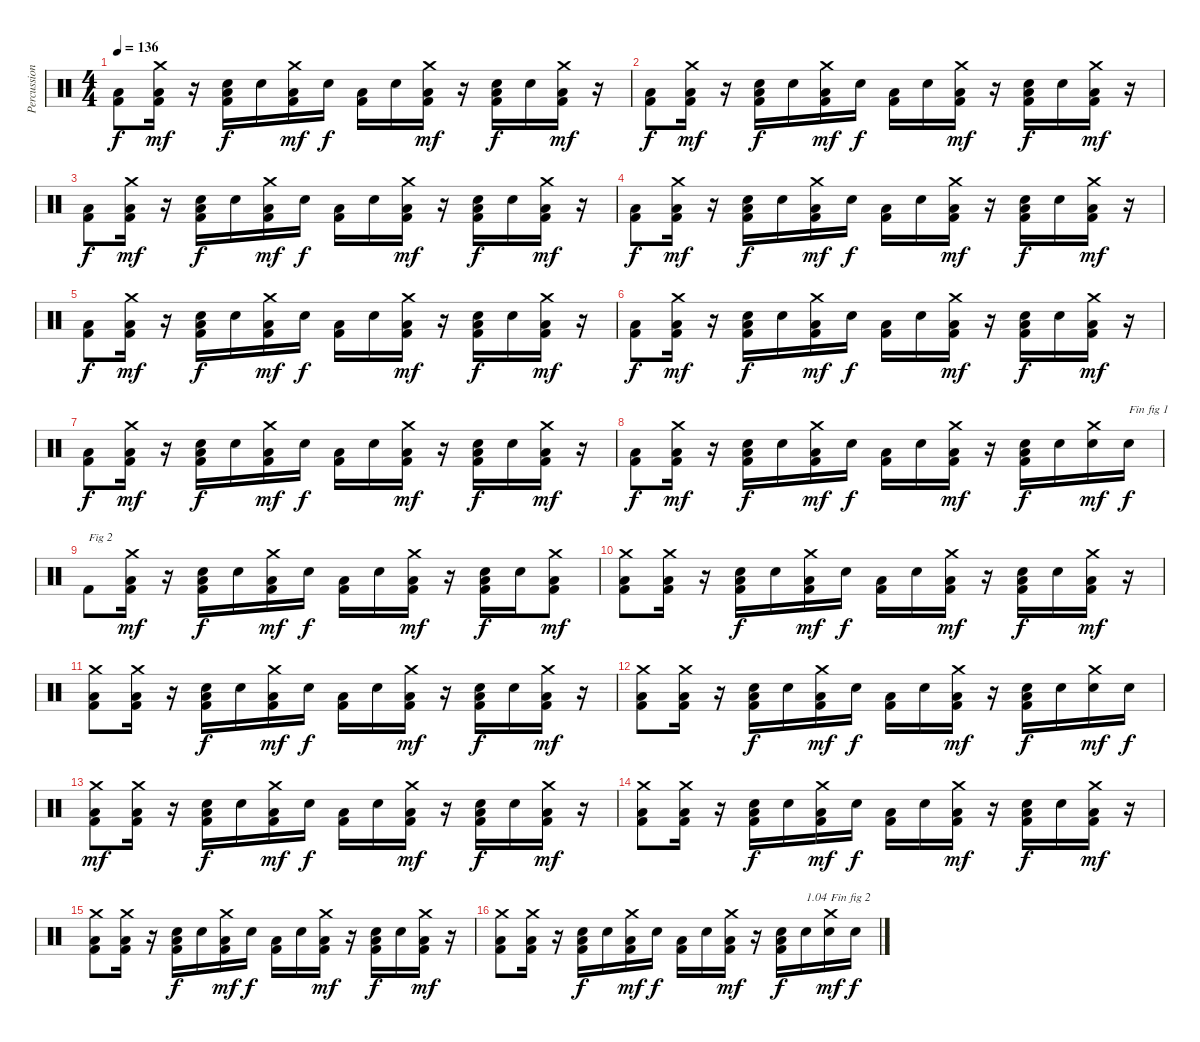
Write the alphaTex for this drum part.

\track ("Percussions" "Percussion") {instrument percussion}
\staff {score}
\articulation defaults
\ts (4 4)
\tempo 136
\clef neutral
\ks c
("Low Floor Tom (hit)" "Kick (hit) 2").8{dy f} ("Low Floor Tom (hit)" "Kick (hit) 2" "Crash medium (hit)").16{dy mf} r.16 ("Low Floor Tom (hit)" "Kick (hit) 2" "Electric Snare (hit)").16{dy f} "Electric Snare (hit)".16 ("Low Floor Tom (hit)" "Kick (hit) 2" "Crash medium (hit)").16{dy mf} "Electric Snare (hit)".16{dy f} ("Low Floor Tom (hit)" "Kick (hit) 2").16 "Electric Snare (hit)".16 ("Low Floor Tom (hit)" "Kick (hit) 2" "Crash medium (hit)").16{dy mf} r.16 ("Low Floor Tom (hit)" "Kick (hit) 2" "Electric Snare (hit)").16{dy f} "Electric Snare (hit)".16 ("Low Floor Tom (hit)" "Kick (hit) 2" "Crash medium (hit)").16{dy mf} r.16 |
("Low Floor Tom (hit)" "Kick (hit) 2").8{dy f} ("Low Floor Tom (hit)" "Kick (hit) 2" "Crash medium (hit)").16{dy mf} r.16 ("Low Floor Tom (hit)" "Kick (hit) 2" "Electric Snare (hit)").16{dy f} "Electric Snare (hit)".16 ("Low Floor Tom (hit)" "Kick (hit) 2" "Crash medium (hit)").16{dy mf} "Electric Snare (hit)".16{dy f} ("Low Floor Tom (hit)" "Kick (hit) 2").16 "Electric Snare (hit)".16 ("Low Floor Tom (hit)" "Kick (hit) 2" "Crash medium (hit)").16{dy mf} r.16 ("Low Floor Tom (hit)" "Kick (hit) 2" "Electric Snare (hit)").16{dy f} "Electric Snare (hit)".16 ("Low Floor Tom (hit)" "Kick (hit) 2" "Crash medium (hit)").16{dy mf} r.16 |
("Low Floor Tom (hit)" "Kick (hit) 2").8{dy f} ("Low Floor Tom (hit)" "Kick (hit) 2" "Crash medium (hit)").16{dy mf} r.16 ("Low Floor Tom (hit)" "Kick (hit) 2" "Electric Snare (hit)").16{dy f} "Electric Snare (hit)".16 ("Low Floor Tom (hit)" "Kick (hit) 2" "Crash medium (hit)").16{dy mf} "Electric Snare (hit)".16{dy f} ("Low Floor Tom (hit)" "Kick (hit) 2").16 "Electric Snare (hit)".16 ("Low Floor Tom (hit)" "Kick (hit) 2" "Crash medium (hit)").16{dy mf} r.16 ("Low Floor Tom (hit)" "Kick (hit) 2" "Electric Snare (hit)").16{dy f} "Electric Snare (hit)".16 ("Low Floor Tom (hit)" "Kick (hit) 2" "Crash medium (hit)").16{dy mf} r.16 |
("Low Floor Tom (hit)" "Kick (hit) 2").8{dy f} ("Low Floor Tom (hit)" "Kick (hit) 2" "Crash medium (hit)").16{dy mf} r.16 ("Low Floor Tom (hit)" "Kick (hit) 2" "Electric Snare (hit)").16{dy f} "Electric Snare (hit)".16 ("Low Floor Tom (hit)" "Kick (hit) 2" "Crash medium (hit)").16{dy mf} "Electric Snare (hit)".16{dy f} ("Low Floor Tom (hit)" "Kick (hit) 2").16 "Electric Snare (hit)".16 ("Low Floor Tom (hit)" "Kick (hit) 2" "Crash medium (hit)").16{dy mf} r.16 ("Low Floor Tom (hit)" "Kick (hit) 2" "Electric Snare (hit)").16{dy f} "Electric Snare (hit)".16 ("Low Floor Tom (hit)" "Kick (hit) 2" "Crash medium (hit)").16{dy mf} r.16 |
("Low Floor Tom (hit)" "Kick (hit) 2").8{dy f} ("Low Floor Tom (hit)" "Kick (hit) 2" "Crash medium (hit)").16{dy mf} r.16 ("Low Floor Tom (hit)" "Kick (hit) 2" "Electric Snare (hit)").16{dy f} "Electric Snare (hit)".16 ("Low Floor Tom (hit)" "Kick (hit) 2" "Crash medium (hit)").16{dy mf} "Electric Snare (hit)".16{dy f} ("Low Floor Tom (hit)" "Kick (hit) 2").16 "Electric Snare (hit)".16 ("Low Floor Tom (hit)" "Kick (hit) 2" "Crash medium (hit)").16{dy mf} r.16 ("Low Floor Tom (hit)" "Kick (hit) 2" "Electric Snare (hit)").16{dy f} "Electric Snare (hit)".16 ("Low Floor Tom (hit)" "Kick (hit) 2" "Crash medium (hit)").16{dy mf} r.16 |
("Low Floor Tom (hit)" "Kick (hit) 2").8{dy f} ("Low Floor Tom (hit)" "Kick (hit) 2" "Crash medium (hit)").16{dy mf} r.16 ("Low Floor Tom (hit)" "Kick (hit) 2" "Electric Snare (hit)").16{dy f} "Electric Snare (hit)".16 ("Low Floor Tom (hit)" "Kick (hit) 2" "Crash medium (hit)").16{dy mf} "Electric Snare (hit)".16{dy f} ("Low Floor Tom (hit)" "Kick (hit) 2").16 "Electric Snare (hit)".16 ("Low Floor Tom (hit)" "Kick (hit) 2" "Crash medium (hit)").16{dy mf} r.16 ("Low Floor Tom (hit)" "Kick (hit) 2" "Electric Snare (hit)").16{dy f} "Electric Snare (hit)".16 ("Low Floor Tom (hit)" "Kick (hit) 2" "Crash medium (hit)").16{dy mf} r.16 |
("Low Floor Tom (hit)" "Kick (hit) 2").8{dy f} ("Low Floor Tom (hit)" "Kick (hit) 2" "Crash medium (hit)").16{dy mf} r.16 ("Low Floor Tom (hit)" "Kick (hit) 2" "Electric Snare (hit)").16{dy f} "Electric Snare (hit)".16 ("Low Floor Tom (hit)" "Kick (hit) 2" "Crash medium (hit)").16{dy mf} "Electric Snare (hit)".16{dy f} ("Low Floor Tom (hit)" "Kick (hit) 2").16 "Electric Snare (hit)".16 ("Low Floor Tom (hit)" "Kick (hit) 2" "Crash medium (hit)").16{dy mf} r.16 ("Low Floor Tom (hit)" "Kick (hit) 2" "Electric Snare (hit)").16{dy f} "Electric Snare (hit)".16 ("Low Floor Tom (hit)" "Kick (hit) 2" "Crash medium (hit)").16{dy mf} r.16 |
("Low Floor Tom (hit)" "Kick (hit) 2").8{dy f} ("Low Floor Tom (hit)" "Kick (hit) 2" "Crash medium (hit)").16{dy mf} r.16 ("Low Floor Tom (hit)" "Kick (hit) 2" "Electric Snare (hit)").16{dy f} "Electric Snare (hit)".16 ("Low Floor Tom (hit)" "Kick (hit) 2" "Crash medium (hit)").16{dy mf} "Electric Snare (hit)".16{dy f} ("Low Floor Tom (hit)" "Kick (hit) 2").16 "Electric Snare (hit)".16 ("Low Floor Tom (hit)" "Kick (hit) 2" "Crash medium (hit)").16{dy mf} r.16 ("Low Floor Tom (hit)" "Kick (hit) 2" "Electric Snare (hit)").16{dy f} "Electric Snare (hit)".16 ("Electric Snare (hit)" "Crash medium (hit)").16{dy mf} "Electric Snare (hit)".16{txt "Fin fig 1" dy f} |
"Kick (hit) 2".8{txt "Fig 2"} ("Low Floor Tom (hit)" "Kick (hit) 2" "Crash medium (hit)").16{dy mf} r.16 ("Low Floor Tom (hit)" "Kick (hit) 2" "Electric Snare (hit)").16{dy f} "Electric Snare (hit)".16 ("Low Floor Tom (hit)" "Kick (hit) 2" "Crash medium (hit)").16{dy mf} "Electric Snare (hit)".16{dy f} ("Low Floor Tom (hit)" "Kick (hit) 2").16 "Electric Snare (hit)".16 ("Low Floor Tom (hit)" "Kick (hit) 2" "Crash medium (hit)").16{dy mf} r.16 ("Low Floor Tom (hit)" "Kick (hit) 2" "Electric Snare (hit)").16{dy f} "Electric Snare (hit)".16 ("Low Floor Tom (hit)" "Kick (hit) 2" "Crash medium (hit)").8{dy mf} |
("Low Floor Tom (hit)" "Kick (hit) 2" "Crash medium (hit)").8 ("Low Floor Tom (hit)" "Kick (hit) 2" "Crash medium (hit)").16 r.16 ("Low Floor Tom (hit)" "Kick (hit) 2" "Electric Snare (hit)").16{dy f} "Electric Snare (hit)".16 ("Low Floor Tom (hit)" "Kick (hit) 2" "Crash medium (hit)").16{dy mf} "Electric Snare (hit)".16{dy f} ("Low Floor Tom (hit)" "Kick (hit) 2").16 "Electric Snare (hit)".16 ("Low Floor Tom (hit)" "Kick (hit) 2" "Crash medium (hit)").16{dy mf} r.16 ("Low Floor Tom (hit)" "Kick (hit) 2" "Electric Snare (hit)").16{dy f} "Electric Snare (hit)".16 ("Low Floor Tom (hit)" "Kick (hit) 2" "Crash medium (hit)").16{dy mf} r.16 |
("Low Floor Tom (hit)" "Kick (hit) 2" "Crash medium (hit)").8 ("Low Floor Tom (hit)" "Kick (hit) 2" "Crash medium (hit)").16 r.16 ("Low Floor Tom (hit)" "Kick (hit) 2" "Electric Snare (hit)").16{dy f} "Electric Snare (hit)".16 ("Low Floor Tom (hit)" "Kick (hit) 2" "Crash medium (hit)").16{dy mf} "Electric Snare (hit)".16{dy f} ("Low Floor Tom (hit)" "Kick (hit) 2").16 "Electric Snare (hit)".16 ("Low Floor Tom (hit)" "Kick (hit) 2" "Crash medium (hit)").16{dy mf} r.16 ("Low Floor Tom (hit)" "Kick (hit) 2" "Electric Snare (hit)").16{dy f} "Electric Snare (hit)".16 ("Low Floor Tom (hit)" "Kick (hit) 2" "Crash medium (hit)").16{dy mf} r.16 |
("Low Floor Tom (hit)" "Kick (hit) 2" "Crash medium (hit)").8 ("Low Floor Tom (hit)" "Kick (hit) 2" "Crash medium (hit)").16 r.16 ("Low Floor Tom (hit)" "Kick (hit) 2" "Electric Snare (hit)").16{dy f} "Electric Snare (hit)".16 ("Low Floor Tom (hit)" "Kick (hit) 2" "Crash medium (hit)").16{dy mf} "Electric Snare (hit)".16{dy f} ("Low Floor Tom (hit)" "Kick (hit) 2").16 "Electric Snare (hit)".16 ("Low Floor Tom (hit)" "Kick (hit) 2" "Crash medium (hit)").16{dy mf} r.16 ("Low Floor Tom (hit)" "Kick (hit) 2" "Electric Snare (hit)").16{dy f} "Electric Snare (hit)".16 ("Electric Snare (hit)" "Crash medium (hit)").16{dy mf} "Electric Snare (hit)".16{dy f} |
("Low Floor Tom (hit)" "Kick (hit) 2" "Crash medium (hit)").8{dy mf} ("Low Floor Tom (hit)" "Kick (hit) 2" "Crash medium (hit)").16 r.16 ("Low Floor Tom (hit)" "Kick (hit) 2" "Electric Snare (hit)").16{dy f} "Electric Snare (hit)".16 ("Low Floor Tom (hit)" "Kick (hit) 2" "Crash medium (hit)").16{dy mf} "Electric Snare (hit)".16{dy f} ("Low Floor Tom (hit)" "Kick (hit) 2").16 "Electric Snare (hit)".16 ("Low Floor Tom (hit)" "Kick (hit) 2" "Crash medium (hit)").16{dy mf} r.16 ("Low Floor Tom (hit)" "Kick (hit) 2" "Electric Snare (hit)").16{dy f} "Electric Snare (hit)".16 ("Low Floor Tom (hit)" "Kick (hit) 2" "Crash medium (hit)").16{dy mf} r.16 |
("Low Floor Tom (hit)" "Kick (hit) 2" "Crash medium (hit)").8 ("Low Floor Tom (hit)" "Kick (hit) 2" "Crash medium (hit)").16 r.16 ("Low Floor Tom (hit)" "Kick (hit) 2" "Electric Snare (hit)").16{dy f} "Electric Snare (hit)".16 ("Low Floor Tom (hit)" "Kick (hit) 2" "Crash medium (hit)").16{dy mf} "Electric Snare (hit)".16{dy f} ("Low Floor Tom (hit)" "Kick (hit) 2").16 "Electric Snare (hit)".16 ("Low Floor Tom (hit)" "Kick (hit) 2" "Crash medium (hit)").16{dy mf} r.16 ("Low Floor Tom (hit)" "Kick (hit) 2" "Electric Snare (hit)").16{dy f} "Electric Snare (hit)".16 ("Low Floor Tom (hit)" "Kick (hit) 2" "Crash medium (hit)").16{dy mf} r.16 |
("Low Floor Tom (hit)" "Kick (hit) 2" "Crash medium (hit)").8 ("Low Floor Tom (hit)" "Kick (hit) 2" "Crash medium (hit)").16 r.16 ("Low Floor Tom (hit)" "Kick (hit) 2" "Electric Snare (hit)").16{dy f} "Electric Snare (hit)".16 ("Low Floor Tom (hit)" "Kick (hit) 2" "Crash medium (hit)").16{dy mf} "Electric Snare (hit)".16{dy f} ("Low Floor Tom (hit)" "Kick (hit) 2").16 "Electric Snare (hit)".16 ("Low Floor Tom (hit)" "Kick (hit) 2" "Crash medium (hit)").16{dy mf} r.16 ("Low Floor Tom (hit)" "Kick (hit) 2" "Electric Snare (hit)").16{dy f} "Electric Snare (hit)".16 ("Low Floor Tom (hit)" "Kick (hit) 2" "Crash medium (hit)").16{dy mf} r.16 |
("Low Floor Tom (hit)" "Kick (hit) 2" "Crash medium (hit)").8 ("Low Floor Tom (hit)" "Kick (hit) 2" "Crash medium (hit)").16 r.16 ("Low Floor Tom (hit)" "Kick (hit) 2" "Electric Snare (hit)").16{dy f} "Electric Snare (hit)".16 ("Low Floor Tom (hit)" "Kick (hit) 2" "Crash medium (hit)").16{dy mf} "Electric Snare (hit)".16{dy f} ("Low Floor Tom (hit)" "Kick (hit) 2").16 "Electric Snare (hit)".16 ("Low Floor Tom (hit)" "Kick (hit) 2" "Crash medium (hit)").16{dy mf} r.16 ("Low Floor Tom (hit)" "Kick (hit) 2" "Electric Snare (hit)").16{dy f} "Electric Snare (hit)".16{txt "1.04"} ("Electric Snare (hit)" "Crash medium (hit)").16{txt "Fin fig 2" dy mf} "Electric Snare (hit)".16{dy f}
